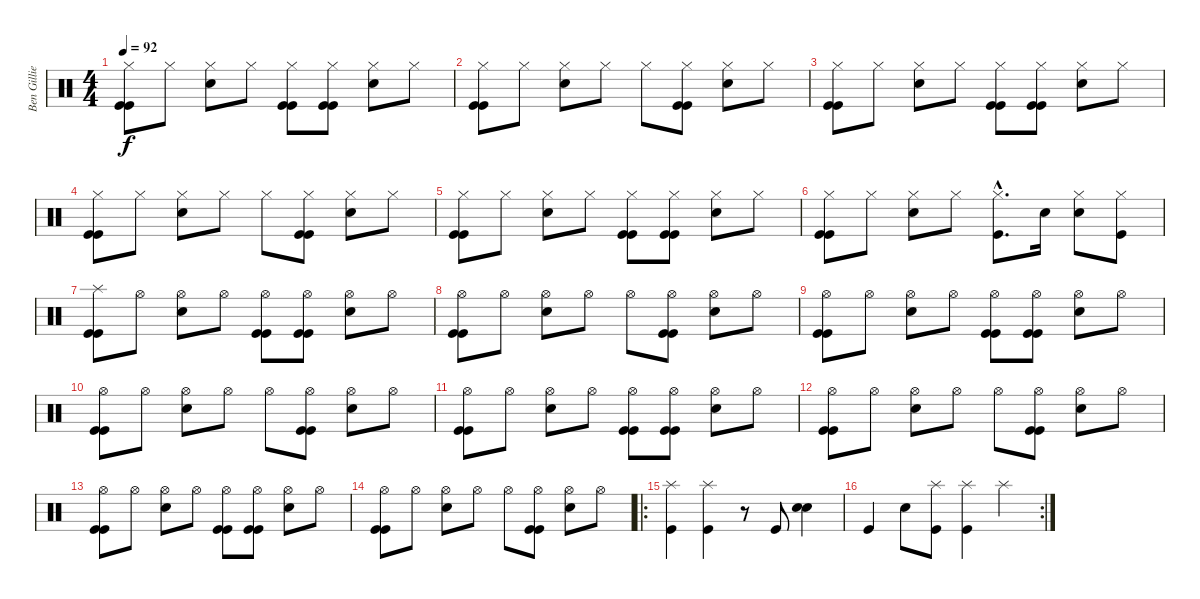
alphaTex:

\track ("Ben Gillies (Drums)" "Ben Gillie") {instrument percussion}
\staff {score}
\articulation defaults
\ts (4 4)
\tempo 92
\clef neutral
\ks c
("Hi-Hat (closed)" "Kick (hit)" "Kick (hit)").8{dy f} "Hi-Hat (closed)".8 ("Electric Snare (hit)" "Hi-Hat (closed)").8 "Hi-Hat (closed)".8 ("Hi-Hat (closed)" "Kick (hit)" "Kick (hit)").8 ("Hi-Hat (closed)" "Kick (hit)" "Kick (hit)").8 ("Electric Snare (hit)" "Hi-Hat (closed)").8 "Hi-Hat (closed)".8 |
("Hi-Hat (closed)" "Kick (hit)" "Kick (hit)").8 "Hi-Hat (closed)".8 ("Electric Snare (hit)" "Hi-Hat (closed)").8 "Hi-Hat (closed)".8 "Hi-Hat (closed)".8 ("Hi-Hat (closed)" "Kick (hit)" "Kick (hit)").8 ("Electric Snare (hit)" "Hi-Hat (closed)").8 "Hi-Hat (closed)".8 |
("Hi-Hat (closed)" "Kick (hit)" "Kick (hit)").8 "Hi-Hat (closed)".8 ("Electric Snare (hit)" "Hi-Hat (closed)").8 "Hi-Hat (closed)".8 ("Hi-Hat (closed)" "Kick (hit)" "Kick (hit)").8 ("Hi-Hat (closed)" "Kick (hit)" "Kick (hit)").8 ("Electric Snare (hit)" "Hi-Hat (closed)").8 "Hi-Hat (closed)".8 |
("Hi-Hat (closed)" "Kick (hit)" "Kick (hit)").8 "Hi-Hat (closed)".8 ("Electric Snare (hit)" "Hi-Hat (closed)").8 "Hi-Hat (closed)".8 "Hi-Hat (closed)".8 ("Hi-Hat (closed)" "Kick (hit)" "Kick (hit)").8 ("Electric Snare (hit)" "Hi-Hat (closed)").8 "Hi-Hat (closed)".8 |
("Hi-Hat (closed)" "Kick (hit)" "Kick (hit)").8 "Hi-Hat (closed)".8 ("Electric Snare (hit)" "Hi-Hat (closed)").8 "Hi-Hat (closed)".8 ("Hi-Hat (closed)" "Kick (hit)" "Kick (hit)").8 ("Hi-Hat (closed)" "Kick (hit)" "Kick (hit)").8 ("Electric Snare (hit)" "Hi-Hat (closed)").8 "Hi-Hat (closed)".8 |
("Hi-Hat (closed)" "Kick (hit)" "Kick (hit)").8 "Hi-Hat (closed)".8 ("Electric Snare (hit)" "Hi-Hat (closed)").8 "Hi-Hat (closed)".8 ("Hi-Hat (closed)"{hac} "Kick (hit)"{hac}).8{d} "Electric Snare (hit)".16 ("Hi-Hat (closed)" "Electric Snare (hit)").8 ("Hi-Hat (closed)" "Kick (hit)").8 |
("Splash (hit)" "Kick (hit)" "Kick (hit)").8 "Hi-Hat (open)".8 ("Electric Snare (hit)" "Hi-Hat (open)").8 "Hi-Hat (open)".8 ("Hi-Hat (open)" "Kick (hit)" "Kick (hit)").8 ("Hi-Hat (open)" "Kick (hit)" "Kick (hit)").8 ("Electric Snare (hit)" "Hi-Hat (open)").8 "Hi-Hat (open)".8 |
("Hi-Hat (open)" "Kick (hit)" "Kick (hit)").8 "Hi-Hat (open)".8 ("Electric Snare (hit)" "Hi-Hat (open)").8 "Hi-Hat (open)".8 "Hi-Hat (open)".8 ("Hi-Hat (open)" "Kick (hit)" "Kick (hit)").8 ("Electric Snare (hit)" "Hi-Hat (open)").8 "Hi-Hat (open)".8 |
("Hi-Hat (open)" "Kick (hit)" "Kick (hit)").8 "Hi-Hat (open)".8 ("Electric Snare (hit)" "Hi-Hat (open)").8 "Hi-Hat (open)".8 ("Hi-Hat (open)" "Kick (hit)" "Kick (hit)").8 ("Hi-Hat (open)" "Kick (hit)" "Kick (hit)").8 ("Electric Snare (hit)" "Hi-Hat (open)").8 "Hi-Hat (open)".8 |
("Hi-Hat (open)" "Kick (hit)" "Kick (hit)").8 "Hi-Hat (open)".8 ("Electric Snare (hit)" "Hi-Hat (open)").8 "Hi-Hat (open)".8 "Hi-Hat (open)".8 ("Hi-Hat (open)" "Kick (hit)" "Kick (hit)").8 ("Electric Snare (hit)" "Hi-Hat (open)").8 "Hi-Hat (open)".8 |
("Hi-Hat (open)" "Kick (hit)" "Kick (hit)").8 "Hi-Hat (open)".8 ("Electric Snare (hit)" "Hi-Hat (open)").8 "Hi-Hat (open)".8 ("Hi-Hat (open)" "Kick (hit)" "Kick (hit)").8 ("Hi-Hat (open)" "Kick (hit)" "Kick (hit)").8 ("Electric Snare (hit)" "Hi-Hat (open)").8 "Hi-Hat (open)".8 |
("Hi-Hat (open)" "Kick (hit)" "Kick (hit)").8 "Hi-Hat (open)".8 ("Electric Snare (hit)" "Hi-Hat (open)").8 "Hi-Hat (open)".8 "Hi-Hat (open)".8 ("Hi-Hat (open)" "Kick (hit)" "Kick (hit)").8 ("Electric Snare (hit)" "Hi-Hat (open)").8 "Hi-Hat (open)".8 |
("Hi-Hat (open)" "Kick (hit)" "Kick (hit)").8 "Hi-Hat (open)".8 ("Electric Snare (hit)" "Hi-Hat (open)").8 "Hi-Hat (open)".8 ("Hi-Hat (open)" "Kick (hit)" "Kick (hit)").8 ("Hi-Hat (open)" "Kick (hit)" "Kick (hit)").8 ("Electric Snare (hit)" "Hi-Hat (open)").8 "Hi-Hat (open)".8 |
("Hi-Hat (open)" "Kick (hit)" "Kick (hit)").8 "Hi-Hat (open)".8 ("Electric Snare (hit)" "Hi-Hat (open)").8 "Hi-Hat (open)".8 "Hi-Hat (open)".8 ("Hi-Hat (open)" "Kick (hit)" "Kick (hit)").8 ("Electric Snare (hit)" "Hi-Hat (open)").8 "Hi-Hat (open)".8 |
\ro
("Splash (hit)" "Kick (hit)").4 ("Splash (hit)" "Kick (hit)").4 r.8 "Kick (hit)".8 ("Electric Snare (hit)" "Electric Snare (hit)").4 |
\rc 2 "Kick (hit)".4 "Electric Snare (hit)".8
("Splash (hit)" "Kick (hit)").8 ("Splash (hit)" "Kick (hit)").4 "Splash (hit)".4
